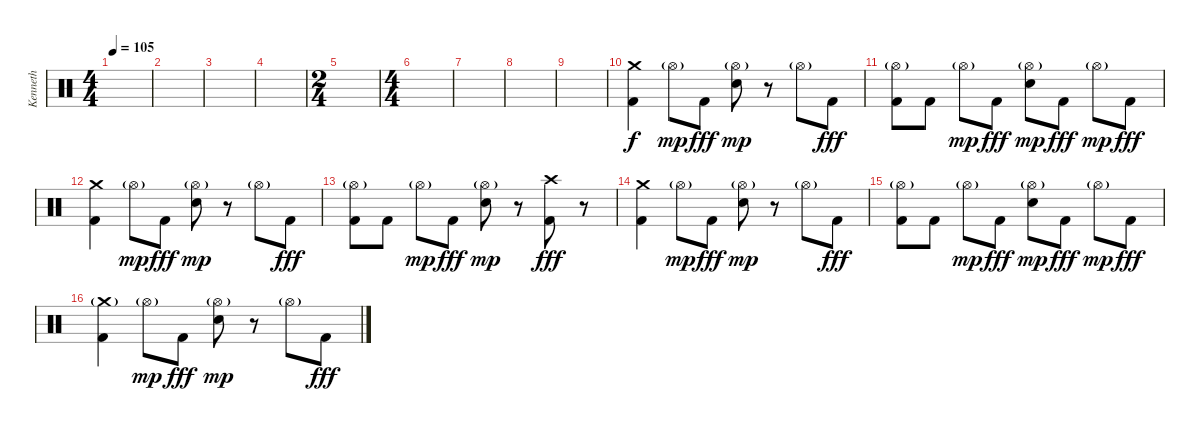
\track ("Kenneth" "Kenneth") {instrument percussion}
\staff {score}
\articulation defaults
\ts (4 4)
\tempo 105
\clef neutral
\ks c
|
|
|
|
\ts (2 4)
|
\ts (4 4)
|
|
|
|
("Crash medium (hit)" "Kick (hit) 2").4 "Hi-Hat (open)"{g}.8{dy mp} "Kick (hit) 2".8{dy fff} ("Hi-Hat (open)"{g} "Electric Snare (hit)").8{dy mp} r.8 "Hi-Hat (open)"{g}.8 "Kick (hit) 2".8{dy fff} |
("Hi-Hat (open)"{g} "Kick (hit) 2").8 "Kick (hit) 2".8 "Hi-Hat (open)"{g}.8{dy mp} "Kick (hit) 2".8{dy fff} ("Hi-Hat (open)"{g} "Electric Snare (hit)").8{dy mp} "Kick (hit) 2".8{dy fff} "Hi-Hat (open)"{g}.8{dy mp} "Kick (hit) 2".8{dy fff} |
("Crash medium (hit)" "Kick (hit) 2").4 "Hi-Hat (open)"{g}.8{dy mp} "Kick (hit) 2".8{dy fff} ("Hi-Hat (open)"{g} "Electric Snare (hit)").8{dy mp} r.8 "Hi-Hat (open)"{g}.8 "Kick (hit) 2".8{dy fff} |
("Hi-Hat (open)"{g} "Kick (hit) 2").8 "Kick (hit) 2".8 "Hi-Hat (open)"{g}.8{dy mp} "Kick (hit) 2".8{dy fff} ("Hi-Hat (open)"{g} "Electric Snare (hit)").8{dy mp} r.8 ("Crash high (hit)" "Kick (hit) 2").8{dy fff} r.8 |
("Crash medium (hit)" "Kick (hit) 2").4 "Hi-Hat (open)"{g}.8{dy mp} "Kick (hit) 2".8{dy fff} ("Hi-Hat (open)"{g} "Electric Snare (hit)").8{dy mp} r.8 "Hi-Hat (open)"{g}.8 "Kick (hit) 2".8{dy fff} |
("Hi-Hat (open)"{g} "Kick (hit) 2").8 "Kick (hit) 2".8 "Hi-Hat (open)"{g}.8{dy mp} "Kick (hit) 2".8{dy fff} ("Hi-Hat (open)"{g} "Electric Snare (hit)").8{dy mp} "Kick (hit) 2".8{dy fff} "Hi-Hat (open)"{g}.8{dy mp} "Kick (hit) 2".8{dy fff} |
("Crash medium (hit)"{g} "Kick (hit) 2").4 "Hi-Hat (open)"{g}.8{dy mp} "Kick (hit) 2".8{dy fff} ("Hi-Hat (open)"{g} "Electric Snare (hit)").8{dy mp} r.8 "Hi-Hat (open)"{g}.8 "Kick (hit) 2".8{dy fff}
